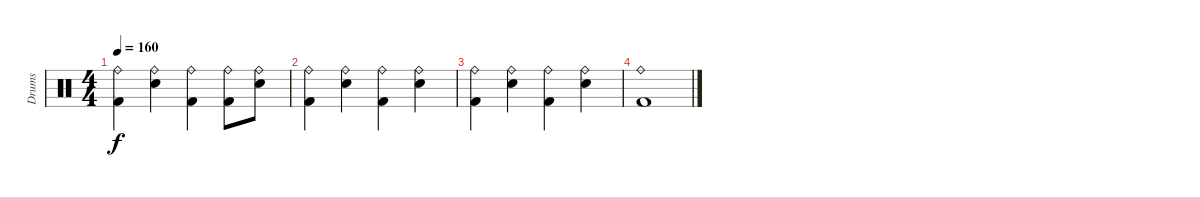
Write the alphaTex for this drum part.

\track ("Drums" "Drums") {instrument percussion}
\staff {score}
\articulation defaults
\ts (4 4)
\tempo 160
\clef neutral
\ks c
("Ride (bell)" "Kick (hit) 2").4{dy f} ("Ride (bell)" "Snare (hit) 2").4 ("Ride (bell)" "Kick (hit) 2").4 ("Ride (bell)" "Kick (hit) 2").8 ("Ride (bell)" "Snare (hit) 2").8 |
("Ride (bell)" "Kick (hit) 2").4 ("Ride (bell)" "Snare (hit) 2").4 ("Ride (bell)" "Kick (hit) 2").4 ("Ride (bell)" "Snare (hit) 2").4 |
("Ride (bell)" "Kick (hit) 2").4 ("Ride (bell)" "Snare (hit) 2").4 ("Ride (bell)" "Kick (hit) 2").4 ("Ride (bell)" "Snare (hit) 2").4 |
("Ride (bell)" "Kick (hit) 2").1
